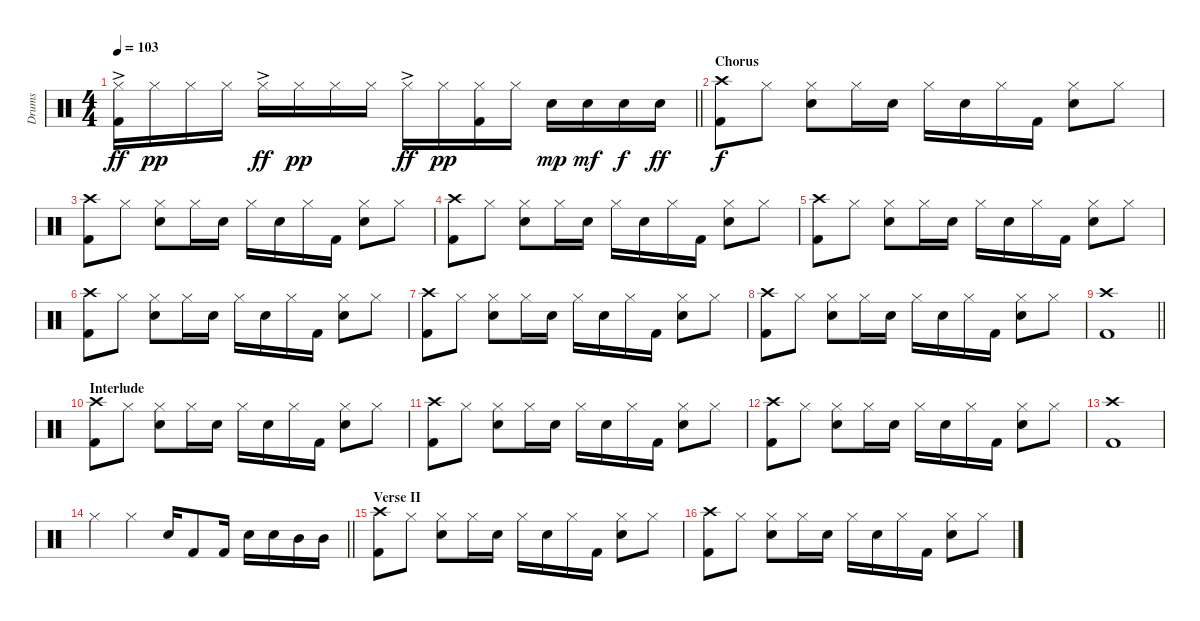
\track ("Drums" "Drums") {instrument percussion}
\staff {score}
\articulation defaults
\ts (4 4)
\tempo 103
\clef neutral
\barLineRight lightlight
\ks c
("Hi-Hat (closed)"{ac} "Kick (hit) 2").16{dy ff} "Hi-Hat (closed)".16{dy pp} "Hi-Hat (closed)".16 "Hi-Hat (closed)".16 "Hi-Hat (closed)"{ac}.16{dy ff} "Hi-Hat (closed)".16{dy pp} "Hi-Hat (closed)".16 "Hi-Hat (closed)".16 "Hi-Hat (closed)"{ac}.16{dy ff} "Hi-Hat (closed)".16{dy pp} ("Hi-Hat (closed)" "Kick (hit) 2").16 "Hi-Hat (closed)".16 "Snare (hit) 2".16{dy mp} "Snare (hit) 2".16{dy mf} "Snare (hit) 2".16{dy f} "Snare (hit) 2".16{dy ff} |
\section ("" "Chorus")
("Crash high (hit)" "Kick (hit) 2").8{dy f} "Hi-Hat (closed)".8 ("Hi-Hat (closed)" "Snare (hit) 2").8 "Hi-Hat (closed)".16 "Snare (hit) 2".16 "Hi-Hat (closed)".16 "Snare (hit) 2".16 "Hi-Hat (closed)".16 "Kick (hit) 2".16 ("Hi-Hat (closed)" "Snare (hit) 2").8 "Hi-Hat (closed)".8 |
("Crash high (hit)" "Kick (hit) 2").8 "Hi-Hat (closed)".8 ("Hi-Hat (closed)" "Snare (hit) 2").8 "Hi-Hat (closed)".16 "Snare (hit) 2".16 "Hi-Hat (closed)".16 "Snare (hit) 2".16 "Hi-Hat (closed)".16 "Kick (hit) 2".16 ("Hi-Hat (closed)" "Snare (hit) 2").8 "Hi-Hat (closed)".8 |
("Crash high (hit)" "Kick (hit) 2").8 "Hi-Hat (closed)".8 ("Hi-Hat (closed)" "Snare (hit) 2").8 "Hi-Hat (closed)".16 "Snare (hit) 2".16 "Hi-Hat (closed)".16 "Snare (hit) 2".16 "Hi-Hat (closed)".16 "Kick (hit) 2".16 ("Hi-Hat (closed)" "Snare (hit) 2").8 "Hi-Hat (closed)".8 |
("Crash high (hit)" "Kick (hit) 2").8 "Hi-Hat (closed)".8 ("Hi-Hat (closed)" "Snare (hit) 2").8 "Hi-Hat (closed)".16 "Snare (hit) 2".16 "Hi-Hat (closed)".16 "Snare (hit) 2".16 "Hi-Hat (closed)".16 "Kick (hit) 2".16 ("Hi-Hat (closed)" "Snare (hit) 2").8 "Hi-Hat (closed)".8 |
("Crash high (hit)" "Kick (hit) 2").8 "Hi-Hat (closed)".8 ("Hi-Hat (closed)" "Snare (hit) 2").8 "Hi-Hat (closed)".16 "Snare (hit) 2".16 "Hi-Hat (closed)".16 "Snare (hit) 2".16 "Hi-Hat (closed)".16 "Kick (hit) 2".16 ("Hi-Hat (closed)" "Snare (hit) 2").8 "Hi-Hat (closed)".8 |
("Crash high (hit)" "Kick (hit) 2").8 "Hi-Hat (closed)".8 ("Hi-Hat (closed)" "Snare (hit) 2").8 "Hi-Hat (closed)".16 "Snare (hit) 2".16 "Hi-Hat (closed)".16 "Snare (hit) 2".16 "Hi-Hat (closed)".16 "Kick (hit) 2".16 ("Hi-Hat (closed)" "Snare (hit) 2").8 "Hi-Hat (closed)".8 |
("Crash high (hit)" "Kick (hit) 2").8 "Hi-Hat (closed)".8 ("Hi-Hat (closed)" "Snare (hit) 2").8 "Hi-Hat (closed)".16 "Snare (hit) 2".16 "Hi-Hat (closed)".16 "Snare (hit) 2".16 "Hi-Hat (closed)".16 "Kick (hit) 2".16 ("Hi-Hat (closed)" "Snare (hit) 2").8 "Hi-Hat (closed)".8 |
\barLineRight lightlight
("Crash high (hit)" "Kick (hit) 2").1 |
\section ("" "Interlude")
("Crash high (hit)" "Kick (hit) 2").8 "Hi-Hat (closed)".8 ("Hi-Hat (closed)" "Snare (hit) 2").8 "Hi-Hat (closed)".16 "Snare (hit) 2".16 "Hi-Hat (closed)".16 "Snare (hit) 2".16 "Hi-Hat (closed)".16 "Kick (hit) 2".16 ("Hi-Hat (closed)" "Snare (hit) 2").8 "Hi-Hat (closed)".8 |
("Crash high (hit)" "Kick (hit) 2").8 "Hi-Hat (closed)".8 ("Hi-Hat (closed)" "Snare (hit) 2").8 "Hi-Hat (closed)".16 "Snare (hit) 2".16 "Hi-Hat (closed)".16 "Snare (hit) 2".16 "Hi-Hat (closed)".16 "Kick (hit) 2".16 ("Hi-Hat (closed)" "Snare (hit) 2").8 "Hi-Hat (closed)".8 |
("Crash high (hit)" "Kick (hit) 2").8 "Hi-Hat (closed)".8 ("Hi-Hat (closed)" "Snare (hit) 2").8 "Hi-Hat (closed)".16 "Snare (hit) 2".16 "Hi-Hat (closed)".16 "Snare (hit) 2".16 "Hi-Hat (closed)".16 "Kick (hit) 2".16 ("Hi-Hat (closed)" "Snare (hit) 2").8 "Hi-Hat (closed)".8 |
("Crash high (hit)" "Kick (hit) 2").1 |
\barLineRight lightlight "Hi-Hat (closed)".4 "Hi-Hat (closed)".4 "Snare (hit) 2".16 "Kick (hit) 2".8 "Kick (hit) 2".16 "Snare (hit) 2".16 "Snare (hit) 2".16 "Mid Tom (hit)".16 "Mid Tom (hit)".16
|
\section ("" "Verse II")
("Crash high (hit)" "Kick (hit) 2").8 "Hi-Hat (closed)".8 ("Hi-Hat (closed)" "Snare (hit) 2").8 "Hi-Hat (closed)".16 "Snare (hit) 2".16 "Hi-Hat (closed)".16 "Snare (hit) 2".16 "Hi-Hat (closed)".16 "Kick (hit) 2".16 ("Hi-Hat (closed)" "Snare (hit) 2").8 "Hi-Hat (closed)".8 |
("Crash high (hit)" "Kick (hit) 2").8 "Hi-Hat (closed)".8 ("Hi-Hat (closed)" "Snare (hit) 2").8 "Hi-Hat (closed)".16 "Snare (hit) 2".16 "Hi-Hat (closed)".16 "Snare (hit) 2".16 "Hi-Hat (closed)".16 "Kick (hit) 2".16 ("Hi-Hat (closed)" "Snare (hit) 2").8 "Hi-Hat (closed)".8
